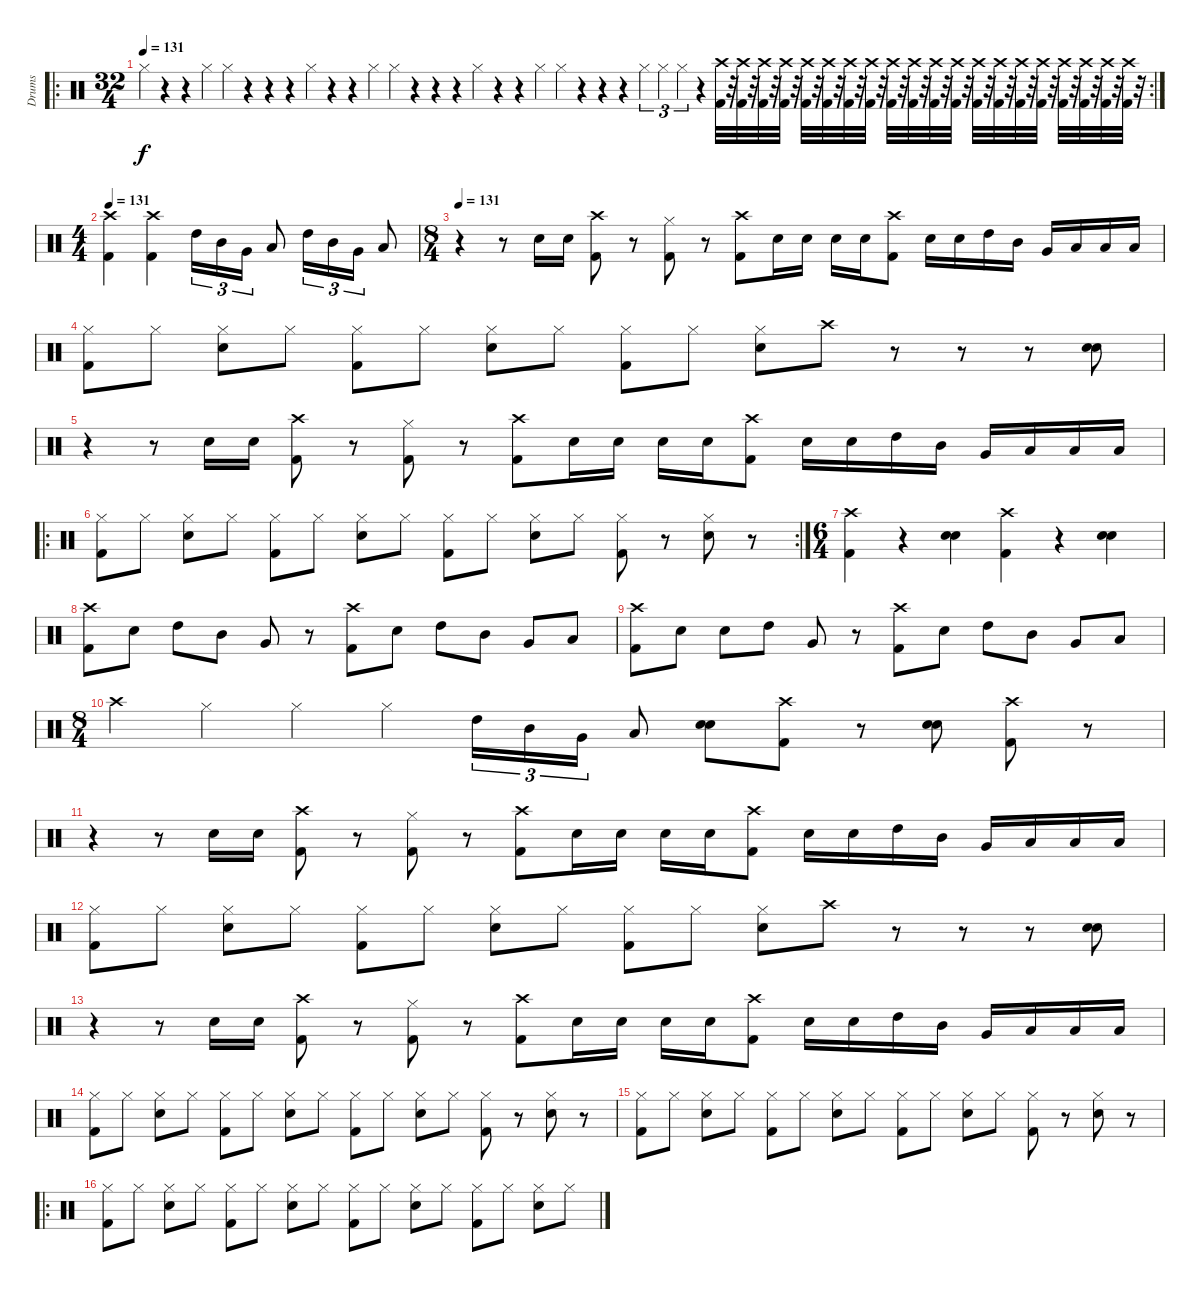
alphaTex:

\track ("Drums" "Drums") {instrument percussion}
\staff {score}
\articulation defaults
\ro
\rc 2
\ts (32 4)
\tempo 131
\tempo 68
\tempo 131
\clef neutral
\ks c "Hi-Hat (closed)".4{dy f volume 13}
r.4 r.4 "Hi-Hat (closed)".4 "Hi-Hat (closed)".4 r.4 r.4 r.4 "Hi-Hat (closed)".4 r.4 r.4 "Hi-Hat (closed)".4 "Hi-Hat (closed)".4 r.4 r.4 r.4 "Hi-Hat (closed)".4 r.4 r.4 "Hi-Hat (closed)".4 "Hi-Hat (closed)".4 r.4 r.4 r.4 "Hi-Hat (closed)".4{tu (3 2)} "Hi-Hat (closed)".4{tu (3 2)} "Hi-Hat (closed)".4{tu (3 2)} r.4 ("Crash high (hit)" "Kick (hit) 2").32{volume 7} r.32 ("Crash high (hit)" "Kick (hit) 2").32 r.32 ("Crash high (hit)" "Kick (hit) 2").32 r.32 ("Crash high (hit)" "Kick (hit) 2").32 r.32 ("Crash high (hit)" "Kick (hit) 2").32 r.32 ("Crash high (hit)" "Kick (hit) 2").32 r.32 ("Crash high (hit)" "Kick (hit) 2").32 r.32 ("Crash high (hit)" "Kick (hit) 2").32 r.32 ("Crash high (hit)" "Kick (hit) 2").32 r.32 ("Crash high (hit)" "Kick (hit) 2").32 r.32 ("Crash high (hit)" "Kick (hit) 2").32 r.32 ("Crash high (hit)" "Kick (hit) 2").32 r.32 ("Crash high (hit)" "Kick (hit) 2").32 r.32 ("Crash high (hit)" "Kick (hit) 2").32 r.32 ("Crash high (hit)" "Kick (hit) 2").32 r.32 ("Crash high (hit)" "Kick (hit) 2").32 r.32 ("Crash high (hit)" "Kick (hit) 2").32 r.32 ("Crash high (hit)" "Kick (hit) 2").32 r.32 ("Crash high (hit)" "Kick (hit) 2").32 r.32 ("Crash high (hit)" "Kick (hit) 2").32 r.32 |
\ts (4 4)
\tempo 131
("Crash high (hit)" "Kick (hit) 2").4{volume 13} ("Crash high (hit)" "Kick (hit) 2").4 "High Tom (hit)".16{tu (3 2)} "Mid Tom (hit)".16{tu (3 2)} "Very Low Tom (hit)".16{tu (3 2)} "Low Floor Tom (hit)".8 "High Tom (hit)".16{tu (3 2)} "Mid Tom (hit)".16{tu (3 2)} "Very Low Tom (hit)".16{tu (3 2)} "Low Floor Tom (hit)".8 |
\ts (8 4)
\tempo 131
r.4 r.8 "Snare (hit) 2".16 "Snare (hit) 2".16 ("Crash high (hit)" "Kick (hit) 2").8 r.8 ("Hi-Hat (closed)" "Kick (hit) 2").8 r.8 ("Crash high (hit)" "Kick (hit) 2").8 "Snare (hit) 2".16 "Snare (hit) 2".16 "Snare (hit) 2".16 "Snare (hit) 2".16 ("Crash high (hit)" "Kick (hit) 2").8 "Snare (hit) 2".16 "Snare (hit) 2".16 "High Tom (hit)".16 "Mid Tom (hit)".16 "Very Low Tom (hit)".16 "Low Floor Tom (hit)".16 "Low Floor Tom (hit)".16 "Low Floor Tom (hit)".16 |
("Hi-Hat (closed)" "Kick (hit) 2").8 "Hi-Hat (closed)".8 ("Hi-Hat (closed)" "Snare (hit) 2").8 "Hi-Hat (closed)".8 ("Hi-Hat (closed)" "Kick (hit) 2").8 "Hi-Hat (closed)".8 ("Hi-Hat (closed)" "Snare (hit) 2").8 "Hi-Hat (closed)".8 ("Hi-Hat (closed)" "Kick (hit) 2").8 "Hi-Hat (closed)".8 ("Hi-Hat (closed)" "Snare (hit) 2").8 "Crash high (hit)".8 r.8 r.8 r.8 ("Snare (hit) 2" "Snare (hit) 2").8{bd 480} |
r.4 r.8 "Snare (hit) 2".16 "Snare (hit) 2".16 ("Crash high (hit)" "Kick (hit) 2").8 r.8 ("Hi-Hat (closed)" "Kick (hit) 2").8 r.8 ("Crash high (hit)" "Kick (hit) 2").8 "Snare (hit) 2".16 "Snare (hit) 2".16 "Snare (hit) 2".16 "Snare (hit) 2".16 ("Crash high (hit)" "Kick (hit) 2").8 "Snare (hit) 2".16 "Snare (hit) 2".16 "High Tom (hit)".16 "Mid Tom (hit)".16 "Very Low Tom (hit)".16 "Low Floor Tom (hit)".16 "Low Floor Tom (hit)".16 "Low Floor Tom (hit)".16 |
\ro
\rc 2
("Hi-Hat (closed)" "Kick (hit) 2").8 "Hi-Hat (closed)".8 ("Hi-Hat (closed)" "Snare (hit) 2").8 "Hi-Hat (closed)".8 ("Hi-Hat (closed)" "Kick (hit) 2").8 "Hi-Hat (closed)".8 ("Hi-Hat (closed)" "Snare (hit) 2").8 "Hi-Hat (closed)".8 ("Hi-Hat (closed)" "Kick (hit) 2").8 "Hi-Hat (closed)".8 ("Hi-Hat (closed)" "Snare (hit) 2").8 "Hi-Hat (closed)".8 ("Hi-Hat (closed)" "Kick (hit) 2").8 r.8 ("Hi-Hat (closed)" "Snare (hit) 2").8 r.8 |
\ts (6 4)
("Crash high (hit)" "Kick (hit) 2").4 r.4 ("Snare (hit) 2" "Snare (hit) 2").4{bd 480} ("Crash high (hit)" "Kick (hit) 2").4 r.4 ("Snare (hit) 2" "Snare (hit) 2").4{bd 480} |
("Crash high (hit)" "Kick (hit) 2").8 "Snare (hit) 2".8 "High Tom (hit)".8 "Mid Tom (hit)".8 "Very Low Tom (hit)".8 r.8 ("Crash high (hit)" "Kick (hit) 2").8 "Snare (hit) 2".8 "High Tom (hit)".8 "Mid Tom (hit)".8 "Very Low Tom (hit)".8 "Low Floor Tom (hit)".8 |
("Crash high (hit)" "Kick (hit) 2").8 "Electric Snare (hit)".8 "Electric Snare (hit)".8 "High Tom (hit)".8 "Very Low Tom (hit)".8 r.8 ("Crash high (hit)" "Kick (hit) 2").8 "Snare (hit) 2".8 "High Tom (hit)".8 "Mid Tom (hit)".8 "Very Low Tom (hit)".8 "Low Floor Tom (hit)".8 |
\ts (8 4)
"Crash high (hit)".4 "Hi-Hat (closed)".4 "Hi-Hat (closed)".4 "Hi-Hat (closed)".4 "High Tom (hit)".16{tu (3 2)} "Mid Tom (hit)".16{tu (3 2)} "Very Low Tom (hit)".16{tu (3 2)} "Low Floor Tom (hit)".8 ("Snare (hit) 2" "Snare (hit) 2").8{bd 480} ("Crash high (hit)" "Kick (hit) 2").8 r.8 ("Snare (hit) 2" "Snare (hit) 2").8{bd 480} ("Crash high (hit)" "Kick (hit) 2").8 r.8 |
r.4 r.8 "Snare (hit) 2".16 "Snare (hit) 2".16 ("Crash high (hit)" "Kick (hit) 2").8 r.8 ("Hi-Hat (closed)" "Kick (hit) 2").8 r.8 ("Crash high (hit)" "Kick (hit) 2").8 "Snare (hit) 2".16 "Snare (hit) 2".16 "Snare (hit) 2".16 "Snare (hit) 2".16 ("Crash high (hit)" "Kick (hit) 2").8 "Snare (hit) 2".16 "Snare (hit) 2".16 "High Tom (hit)".16 "Mid Tom (hit)".16 "Very Low Tom (hit)".16 "Low Floor Tom (hit)".16 "Low Floor Tom (hit)".16 "Low Floor Tom (hit)".16 |
("Hi-Hat (closed)" "Kick (hit) 2").8 "Hi-Hat (closed)".8 ("Hi-Hat (closed)" "Snare (hit) 2").8 "Hi-Hat (closed)".8 ("Hi-Hat (closed)" "Kick (hit) 2").8 "Hi-Hat (closed)".8 ("Hi-Hat (closed)" "Snare (hit) 2").8 "Hi-Hat (closed)".8 ("Hi-Hat (closed)" "Kick (hit) 2").8 "Hi-Hat (closed)".8 ("Hi-Hat (closed)" "Snare (hit) 2").8 "Crash high (hit)".8 r.8 r.8 r.8 ("Snare (hit) 2" "Snare (hit) 2").8{bd 480} |
r.4 r.8 "Snare (hit) 2".16 "Snare (hit) 2".16 ("Crash high (hit)" "Kick (hit) 2").8 r.8 ("Hi-Hat (closed)" "Kick (hit) 2").8 r.8 ("Crash high (hit)" "Kick (hit) 2").8 "Snare (hit) 2".16 "Snare (hit) 2".16 "Snare (hit) 2".16 "Snare (hit) 2".16 ("Crash high (hit)" "Kick (hit) 2").8 "Snare (hit) 2".16 "Snare (hit) 2".16 "High Tom (hit)".16 "Mid Tom (hit)".16 "Very Low Tom (hit)".16 "Low Floor Tom (hit)".16 "Low Floor Tom (hit)".16 "Low Floor Tom (hit)".16 |
("Hi-Hat (closed)" "Kick (hit) 2").8 "Hi-Hat (closed)".8 ("Hi-Hat (closed)" "Snare (hit) 2").8 "Hi-Hat (closed)".8 ("Hi-Hat (closed)" "Kick (hit) 2").8 "Hi-Hat (closed)".8 ("Hi-Hat (closed)" "Snare (hit) 2").8 "Hi-Hat (closed)".8 ("Hi-Hat (closed)" "Kick (hit) 2").8 "Hi-Hat (closed)".8 ("Hi-Hat (closed)" "Snare (hit) 2").8 "Hi-Hat (closed)".8 ("Hi-Hat (closed)" "Kick (hit) 2").8 r.8 ("Hi-Hat (closed)" "Snare (hit) 2").8 r.8 |
("Hi-Hat (closed)" "Kick (hit) 2").8 "Hi-Hat (closed)".8 ("Hi-Hat (closed)" "Snare (hit) 2").8 "Hi-Hat (closed)".8 ("Hi-Hat (closed)" "Kick (hit) 2").8 "Hi-Hat (closed)".8 ("Hi-Hat (closed)" "Snare (hit) 2").8 "Hi-Hat (closed)".8 ("Hi-Hat (closed)" "Kick (hit) 2").8 "Hi-Hat (closed)".8 ("Hi-Hat (closed)" "Snare (hit) 2").8 "Hi-Hat (closed)".8 ("Hi-Hat (closed)" "Kick (hit) 2").8 r.8 ("Hi-Hat (closed)" "Snare (hit) 2").8 r.8 |
\ro
("Hi-Hat (closed)" "Kick (hit) 2").8 "Hi-Hat (closed)".8 ("Hi-Hat (closed)" "Snare (hit) 2").8 "Hi-Hat (closed)".8 ("Hi-Hat (closed)" "Kick (hit) 2").8 "Hi-Hat (closed)".8 ("Hi-Hat (closed)" "Snare (hit) 2").8 "Hi-Hat (closed)".8 ("Hi-Hat (closed)" "Kick (hit) 2").8 "Hi-Hat (closed)".8 ("Hi-Hat (closed)" "Snare (hit) 2").8 "Hi-Hat (closed)".8 ("Hi-Hat (closed)" "Kick (hit) 2").8 "Hi-Hat (closed)".8 ("Hi-Hat (closed)" "Snare (hit) 2").8 "Hi-Hat (closed)".8
